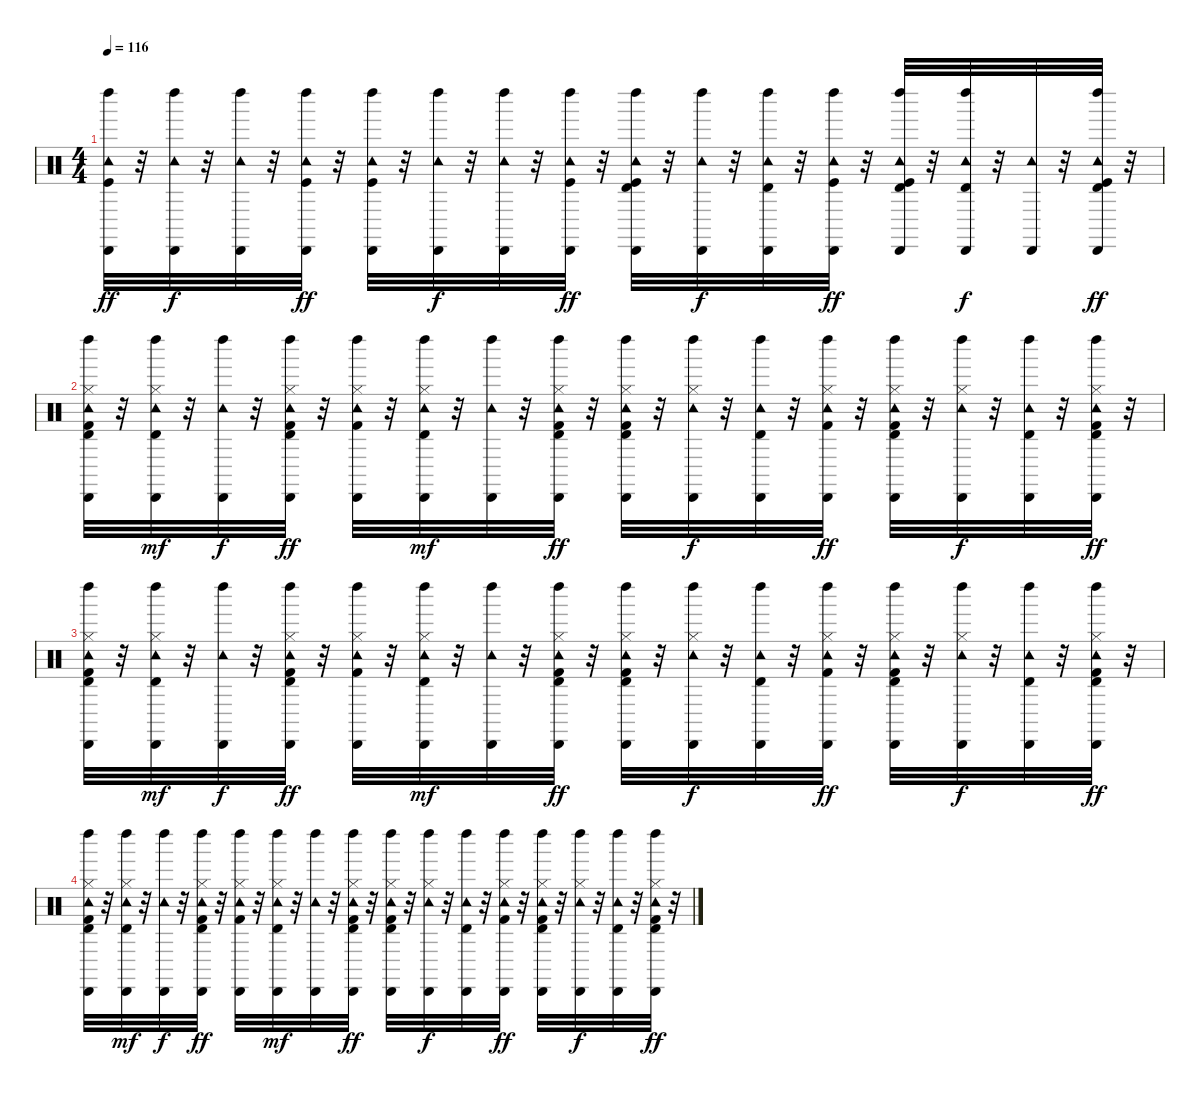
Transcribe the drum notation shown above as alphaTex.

\track "" {instrument percussion}
\staff {score}
\articulation defaults
\ts (4 4)
\tempo 116
\clef neutral
\ks c
("Kick (hit)" "Tambourine (hit)" "Cabasa (hit)" "Left Maraca (hit)").32{dy ff} r.32 ("Tambourine (hit)" "Cabasa (hit)" "Left Maraca (hit)").32{dy f} r.32 ("Tambourine (hit)" "Cabasa (hit)" "Left Maraca (hit)").32 r.32 ("Kick (hit)" "Tambourine (hit)" "Cabasa (hit)" "Left Maraca (hit)").32{dy ff} r.32 ("Kick (hit)" "Tambourine (hit)" "Cabasa (hit)" "Left Maraca (hit)").32 r.32 ("Tambourine (hit)" "Cabasa (hit)" "Left Maraca (hit)").32{dy f} r.32 ("Tambourine (hit)" "Cabasa (hit)" "Left Maraca (hit)").32 r.32 ("Kick (hit)" "Tambourine (hit)" "Cabasa (hit)" "Left Maraca (hit)").32{dy ff} r.32 ("Kick (hit)" "Tambourine (hit)" "Timbale high (hit)" "Cabasa (hit)" "Left Maraca (hit)").32 r.32 ("Tambourine (hit)" "Cabasa (hit)" "Left Maraca (hit)").32{dy f} r.32 ("Tambourine (hit)" "Timbale high (hit)" "Cabasa (hit)" "Left Maraca (hit)").32 r.32 ("Kick (hit)" "Tambourine (hit)" "Cabasa (hit)" "Left Maraca (hit)").32{dy ff} r.32 ("Kick (hit)" "Tambourine (hit)" "Timbale high (hit)" "Cabasa (hit)" "Left Maraca (hit)").32 r.32 ("Tambourine (hit)" "Timbale high (hit)" "Cabasa (hit)" "Left Maraca (hit)").32{dy f} r.32 ("Tambourine (hit)" "Cabasa (hit)").32 r.32 ("Kick (hit)" "Tambourine (hit)" "Timbale high (hit)" "Cabasa (hit)" "Left Maraca (hit)").32{dy ff} r.32 |
("Kick (hit) 2" "Hi-Hat (closed)" "Tambourine (hit)" "Timbale high (hit)" "Cabasa (hit)" "Left Maraca (hit)").32 r.32 ("Hi-Hat (closed)" "Tambourine (hit)" "Timbale high (hit)" "Cabasa (hit)" "Left Maraca (hit)").32{dy mf} r.32 ("Tambourine (hit)" "Cabasa (hit)" "Left Maraca (hit)").32{dy f} r.32 ("Kick (hit) 2" "Hi-Hat (closed)" "Tambourine (hit)" "Timbale high (hit)" "Cabasa (hit)" "Left Maraca (hit)").32{dy ff} r.32 ("Kick (hit) 2" "Hi-Hat (closed)" "Tambourine (hit)" "Cabasa (hit)" "Left Maraca (hit)").32 r.32 ("Hi-Hat (closed)" "Tambourine (hit)" "Timbale high (hit)" "Cabasa (hit)" "Left Maraca (hit)").32{dy mf} r.32 ("Tambourine (hit)" "Cabasa (hit)" "Left Maraca (hit)").32 r.32 ("Kick (hit) 2" "Hi-Hat (closed)" "Tambourine (hit)" "Timbale high (hit)" "Cabasa (hit)" "Left Maraca (hit)").32{dy ff} r.32 ("Kick (hit) 2" "Hi-Hat (closed)" "Tambourine (hit)" "Timbale high (hit)" "Cabasa (hit)" "Left Maraca (hit)").32 r.32 ("Hi-Hat (closed)" "Tambourine (hit)" "Cabasa (hit)" "Left Maraca (hit)").32{dy f} r.32 ("Tambourine (hit)" "Timbale high (hit)" "Cabasa (hit)" "Left Maraca (hit)").32 r.32 ("Kick (hit) 2" "Hi-Hat (closed)" "Tambourine (hit)" "Cabasa (hit)" "Left Maraca (hit)").32{dy ff} r.32 ("Kick (hit) 2" "Hi-Hat (closed)" "Tambourine (hit)" "Timbale high (hit)" "Cabasa (hit)" "Left Maraca (hit)").32 r.32 ("Hi-Hat (closed)" "Tambourine (hit)" "Cabasa (hit)" "Left Maraca (hit)").32{dy f} r.32 ("Tambourine (hit)" "Timbale high (hit)" "Cabasa (hit)" "Left Maraca (hit)").32 r.32 ("Kick (hit) 2" "Hi-Hat (closed)" "Tambourine (hit)" "Timbale high (hit)" "Cabasa (hit)" "Left Maraca (hit)").32{dy ff} r.32 |
("Kick (hit) 2" "Hi-Hat (closed)" "Tambourine (hit)" "Timbale high (hit)" "Cabasa (hit)" "Left Maraca (hit)").32 r.32 ("Hi-Hat (closed)" "Tambourine (hit)" "Timbale high (hit)" "Cabasa (hit)" "Left Maraca (hit)").32{dy mf} r.32 ("Tambourine (hit)" "Cabasa (hit)" "Left Maraca (hit)").32{dy f} r.32 ("Kick (hit) 2" "Hi-Hat (closed)" "Tambourine (hit)" "Timbale high (hit)" "Cabasa (hit)" "Left Maraca (hit)").32{dy ff} r.32 ("Kick (hit) 2" "Hi-Hat (closed)" "Tambourine (hit)" "Cabasa (hit)" "Left Maraca (hit)").32 r.32 ("Hi-Hat (closed)" "Tambourine (hit)" "Timbale high (hit)" "Cabasa (hit)" "Left Maraca (hit)").32{dy mf} r.32 ("Tambourine (hit)" "Cabasa (hit)" "Left Maraca (hit)").32 r.32 ("Kick (hit) 2" "Hi-Hat (closed)" "Tambourine (hit)" "Timbale high (hit)" "Cabasa (hit)" "Left Maraca (hit)").32{dy ff} r.32 ("Kick (hit) 2" "Hi-Hat (closed)" "Tambourine (hit)" "Timbale high (hit)" "Cabasa (hit)" "Left Maraca (hit)").32 r.32 ("Hi-Hat (closed)" "Tambourine (hit)" "Cabasa (hit)" "Left Maraca (hit)").32{dy f} r.32 ("Tambourine (hit)" "Timbale high (hit)" "Cabasa (hit)" "Left Maraca (hit)").32 r.32 ("Kick (hit) 2" "Hi-Hat (closed)" "Tambourine (hit)" "Cabasa (hit)" "Left Maraca (hit)").32{dy ff} r.32 ("Kick (hit) 2" "Hi-Hat (closed)" "Tambourine (hit)" "Timbale high (hit)" "Cabasa (hit)" "Left Maraca (hit)").32 r.32 ("Hi-Hat (closed)" "Tambourine (hit)" "Cabasa (hit)" "Left Maraca (hit)").32{dy f} r.32 ("Tambourine (hit)" "Timbale high (hit)" "Cabasa (hit)" "Left Maraca (hit)").32 r.32 ("Kick (hit) 2" "Hi-Hat (closed)" "Tambourine (hit)" "Timbale high (hit)" "Cabasa (hit)" "Left Maraca (hit)").32{dy ff} r.32 |
("Kick (hit) 2" "Hi-Hat (closed)" "Tambourine (hit)" "Timbale high (hit)" "Cabasa (hit)" "Left Maraca (hit)").32 r.32 ("Hi-Hat (closed)" "Tambourine (hit)" "Timbale high (hit)" "Cabasa (hit)" "Left Maraca (hit)").32{dy mf} r.32 ("Tambourine (hit)" "Cabasa (hit)" "Left Maraca (hit)").32{dy f} r.32 ("Kick (hit) 2" "Hi-Hat (closed)" "Tambourine (hit)" "Timbale high (hit)" "Cabasa (hit)" "Left Maraca (hit)").32{dy ff} r.32 ("Kick (hit) 2" "Hi-Hat (closed)" "Tambourine (hit)" "Cabasa (hit)" "Left Maraca (hit)").32 r.32 ("Hi-Hat (closed)" "Tambourine (hit)" "Timbale high (hit)" "Cabasa (hit)" "Left Maraca (hit)").32{dy mf} r.32 ("Tambourine (hit)" "Cabasa (hit)" "Left Maraca (hit)").32 r.32 ("Kick (hit) 2" "Hi-Hat (closed)" "Tambourine (hit)" "Timbale high (hit)" "Cabasa (hit)" "Left Maraca (hit)").32{dy ff} r.32 ("Kick (hit) 2" "Hi-Hat (closed)" "Tambourine (hit)" "Timbale high (hit)" "Cabasa (hit)" "Left Maraca (hit)").32 r.32 ("Hi-Hat (closed)" "Tambourine (hit)" "Cabasa (hit)" "Left Maraca (hit)").32{dy f} r.32 ("Tambourine (hit)" "Timbale high (hit)" "Cabasa (hit)" "Left Maraca (hit)").32 r.32 ("Kick (hit) 2" "Hi-Hat (closed)" "Tambourine (hit)" "Cabasa (hit)" "Left Maraca (hit)").32{dy ff} r.32 ("Kick (hit) 2" "Hi-Hat (closed)" "Tambourine (hit)" "Timbale high (hit)" "Cabasa (hit)" "Left Maraca (hit)").32 r.32 ("Hi-Hat (closed)" "Tambourine (hit)" "Cabasa (hit)" "Left Maraca (hit)").32{dy f} r.32 ("Tambourine (hit)" "Timbale high (hit)" "Cabasa (hit)" "Left Maraca (hit)").32 r.32 ("Kick (hit) 2" "Hi-Hat (closed)" "Tambourine (hit)" "Timbale high (hit)" "Cabasa (hit)" "Left Maraca (hit)").32{dy ff} r.32
